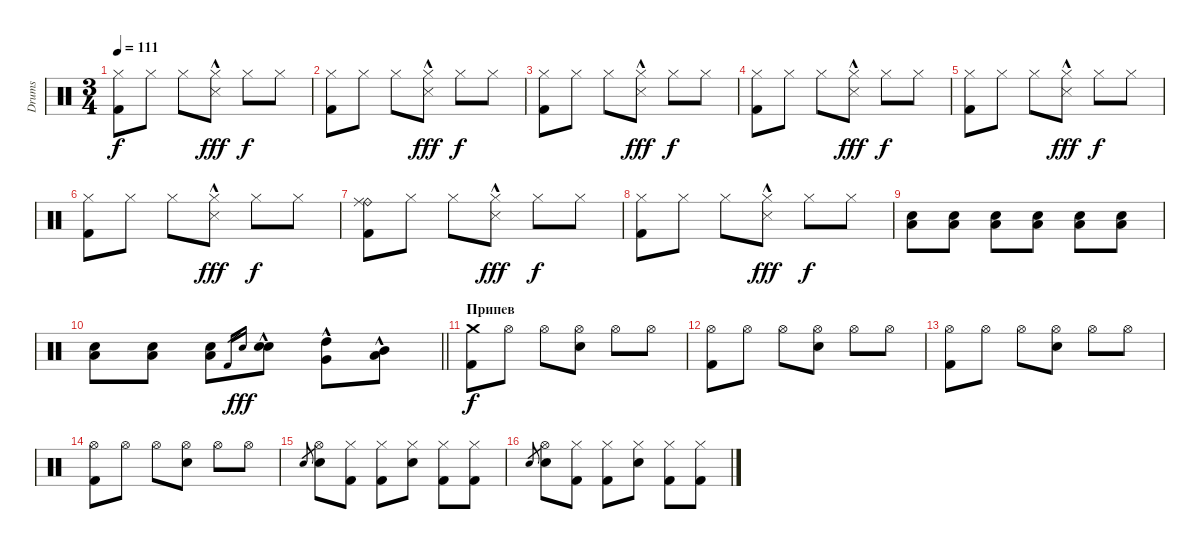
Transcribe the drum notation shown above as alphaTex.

\track ("Drums" "Drums") {instrument percussion}
\staff {score}
\articulation defaults
\ts (3 4)
\tempo 111
\clef neutral
\ks c
("Hi-Hat (closed)" "Kick (hit) 2").8{dy f} "Hi-Hat (closed)".8 "Hi-Hat (closed)".8 ("Hi-Hat (closed)" "Snare (side stick) 3"{hac}).8{dy fff} "Hi-Hat (closed)".8{dy f} "Hi-Hat (closed)".8 |
("Hi-Hat (closed)" "Kick (hit) 2").8 "Hi-Hat (closed)".8 "Hi-Hat (closed)".8 ("Hi-Hat (closed)" "Snare (side stick) 3"{hac}).8{dy fff} "Hi-Hat (closed)".8{dy f} "Hi-Hat (closed)".8 |
("Hi-Hat (closed)" "Kick (hit) 2").8 "Hi-Hat (closed)".8 "Hi-Hat (closed)".8 ("Hi-Hat (closed)" "Snare (side stick) 3"{hac}).8{dy fff} "Hi-Hat (closed)".8{dy f} "Hi-Hat (closed)".8 |
("Hi-Hat (closed)" "Kick (hit) 2").8 "Hi-Hat (closed)".8 "Hi-Hat (closed)".8 ("Hi-Hat (closed)" "Snare (side stick) 3"{hac}).8{dy fff} "Hi-Hat (closed)".8{dy f} "Hi-Hat (closed)".8 |
("Hi-Hat (closed)" "Kick (hit) 2").8 "Hi-Hat (closed)".8 "Hi-Hat (closed)".8 ("Hi-Hat (closed)" "Snare (side stick) 3"{hac}).8{dy fff} "Hi-Hat (closed)".8{dy f} "Hi-Hat (closed)".8 |
("Hi-Hat (closed)" "Kick (hit) 2").8 "Hi-Hat (closed)".8 "Hi-Hat (closed)".8 ("Hi-Hat (closed)" "Snare (side stick) 3"{hac}).8{dy fff} "Hi-Hat (closed)".8{dy f} "Hi-Hat (closed)".8 |
("Ride (bell)" "Kick (hit) 2" "Ride (middle)").8 "Hi-Hat (closed)".8 "Hi-Hat (closed)".8 ("Hi-Hat (closed)" "Snare (side stick) 3"{hac}).8{dy fff} "Hi-Hat (closed)".8{dy f} "Hi-Hat (closed)".8 |
("Hi-Hat (closed)" "Kick (hit) 2").8 "Hi-Hat (closed)".8 "Hi-Hat (closed)".8 ("Hi-Hat (closed)" "Snare (side stick) 3"{hac}).8{dy fff} "Hi-Hat (closed)".8{dy f} "Hi-Hat (closed)".8 |
("Low Tom (hit)" "Snare (hit) 2").8 ("Low Tom (hit)" "Snare (hit) 2").8 ("Low Tom (hit)" "Snare (hit) 2").8 ("Low Tom (hit)" "Snare (hit) 2").8 ("Low Tom (hit)" "Snare (hit) 2").8 ("Low Tom (hit)" "Snare (hit) 2").8 |
\barLineRight lightlight
("Low Tom (hit)" "Snare (hit) 2").8 ("Low Tom (hit)" "Snare (hit) 2").8 ("Low Tom (hit)" "Snare (hit) 2").8 "Kick (hit) 2".16{gr} "Snare (hit) 2".16{gr dy fff} ("Snare (hit) 2"{hac} "Electric Snare (hit)"{hac}).8 ("High Tom (hit)"{hac} "Very Low Tom (hit)"{hac}).8 ("Mid Tom (hit)"{hac} "Low Floor Tom (hit)"{hac}).8 |
\section ("" "Припев")
("Crash medium (hit)" "Kick (hit) 2").8{dy f} "Hi-Hat (open)".8 "Hi-Hat (open)".8 ("Hi-Hat (open)" "Snare (hit) 2").8 "Hi-Hat (open)".8 "Hi-Hat (open)".8 |
("Hi-Hat (open)" "Kick (hit) 2").8 "Hi-Hat (open)".8 "Hi-Hat (open)".8 ("Hi-Hat (open)" "Snare (hit) 2").8 "Hi-Hat (open)".8 "Hi-Hat (open)".8 |
("Hi-Hat (open)" "Kick (hit) 2").8 "Hi-Hat (open)".8 "Hi-Hat (open)".8 ("Hi-Hat (open)" "Snare (hit) 2").8 "Hi-Hat (open)".8 "Hi-Hat (open)".8 |
("Hi-Hat (open)" "Kick (hit) 2").8 "Hi-Hat (open)".8 "Hi-Hat (open)".8 ("Hi-Hat (open)" "Snare (hit) 2").8 "Hi-Hat (open)".8 "Hi-Hat (open)".8 |
"Electric Snare (hit)".8{gr} ("Hi-Hat (open)" "Snare (hit) 2").8 ("Hi-Hat (closed)" "Kick (hit) 2").8 ("Hi-Hat (closed)" "Kick (hit) 2").8 ("Hi-Hat (closed)" "Snare (hit) 2").8 ("Hi-Hat (closed)" "Kick (hit) 2").8 ("Hi-Hat (closed)" "Kick (hit) 2").8 |
"Electric Snare (hit)".8{gr} ("Hi-Hat (open)" "Snare (hit) 2").8 ("Hi-Hat (closed)" "Kick (hit) 2").8 ("Hi-Hat (closed)" "Kick (hit) 2").8 ("Hi-Hat (closed)" "Snare (hit) 2").8 ("Hi-Hat (closed)" "Kick (hit) 2").8 ("Hi-Hat (closed)" "Kick (hit) 2").8
